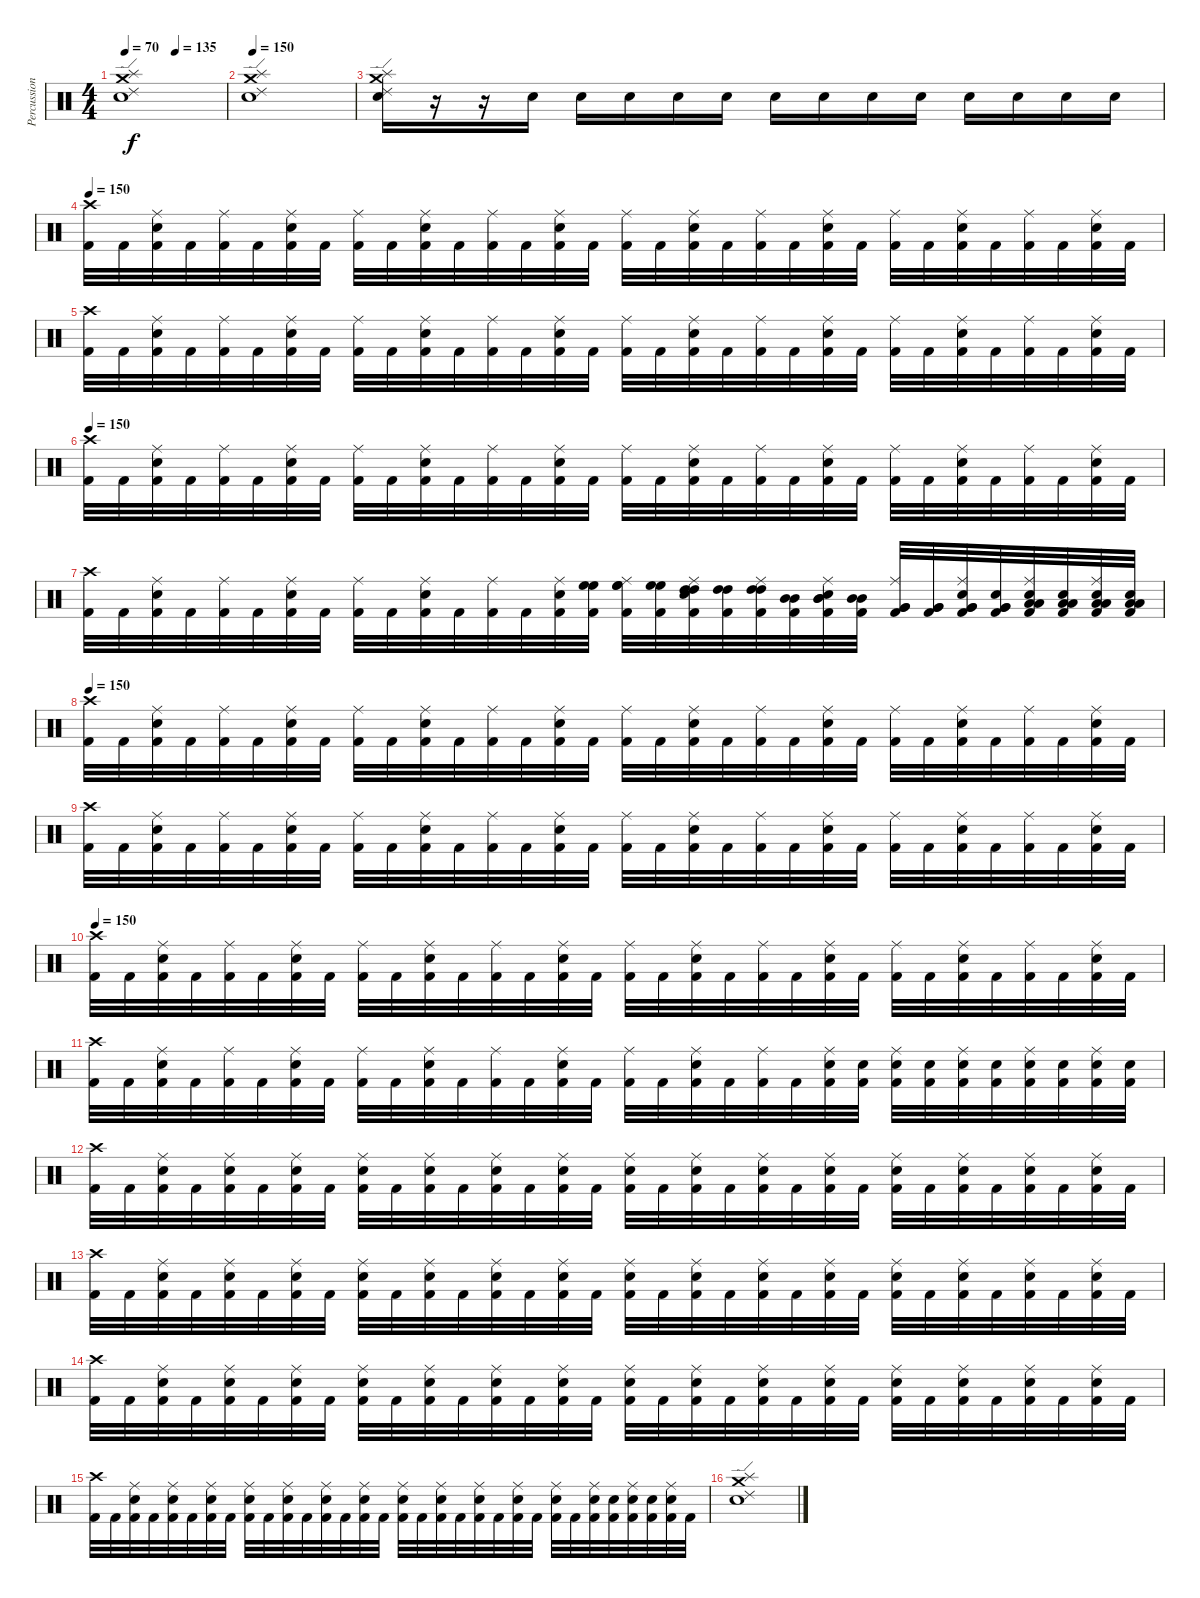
\track ("Percussions" "Percussion") {instrument percussion}
\staff {score}
\articulation defaults
\ts (4 4)
\tempo 70
\tempo (135 0.5)
\clef neutral
\ks c
("Ride (edge) 2" "Crash medium (hit)" "Splash (hit)" "Electric Snare (hit)").1{dy f} |
\tempo 150
("Ride (edge) 2" "Crash medium (hit)" "Splash (hit)" "Electric Snare (hit)").1 |
("Ride (edge) 2" "Crash medium (hit)" "Splash (hit)" "Electric Snare (hit)").16 r.16 r.16 "Electric Snare (hit)".16 "Electric Snare (hit)".16 "Electric Snare (hit)".16 "Electric Snare (hit)".16 "Electric Snare (hit)".16 "Electric Snare (hit)".16 "Electric Snare (hit)".16 "Electric Snare (hit)".16 "Electric Snare (hit)".16 "Electric Snare (hit)".16 "Electric Snare (hit)".16 "Electric Snare (hit)".16 "Electric Snare (hit)".16 |
\tempo 150
("Crash high (hit)" "Kick (hit) 2").32 "Kick (hit) 2".32 ("Ride (middle)" "Electric Snare (hit)" "Kick (hit) 2").32 "Kick (hit) 2".32 ("Ride (middle)" "Kick (hit) 2").32 "Kick (hit) 2".32 ("Ride (middle)" "Electric Snare (hit)" "Kick (hit) 2").32 "Kick (hit) 2".32 ("Ride (middle)" "Kick (hit) 2").32 "Kick (hit) 2".32 ("Ride (middle)" "Electric Snare (hit)" "Kick (hit) 2").32 "Kick (hit) 2".32 ("Ride (middle)" "Kick (hit) 2").32 "Kick (hit) 2".32 ("Ride (middle)" "Electric Snare (hit)" "Kick (hit) 2").32 "Kick (hit) 2".32 ("Ride (middle)" "Kick (hit) 2").32 "Kick (hit) 2".32 ("Ride (middle)" "Electric Snare (hit)" "Kick (hit) 2").32 "Kick (hit) 2".32 ("Ride (middle)" "Kick (hit) 2").32 "Kick (hit) 2".32 ("Ride (middle)" "Electric Snare (hit)" "Kick (hit) 2").32 "Kick (hit) 2".32 ("Ride (middle)" "Kick (hit) 2").32 "Kick (hit) 2".32 ("Ride (middle)" "Electric Snare (hit)" "Kick (hit) 2").32 "Kick (hit) 2".32 ("Ride (middle)" "Kick (hit) 2").32 "Kick (hit) 2".32 ("Ride (middle)" "Electric Snare (hit)" "Kick (hit) 2").32 "Kick (hit) 2".32 |
("Crash high (hit)" "Kick (hit) 2").32 "Kick (hit) 2".32 ("Ride (middle)" "Electric Snare (hit)" "Kick (hit) 2").32 "Kick (hit) 2".32 ("Ride (middle)" "Kick (hit) 2").32 "Kick (hit) 2".32 ("Ride (middle)" "Electric Snare (hit)" "Kick (hit) 2").32 "Kick (hit) 2".32 ("Ride (middle)" "Kick (hit) 2").32 "Kick (hit) 2".32 ("Ride (middle)" "Electric Snare (hit)" "Kick (hit) 2").32 "Kick (hit) 2".32 ("Ride (middle)" "Kick (hit) 2").32 "Kick (hit) 2".32 ("Ride (middle)" "Electric Snare (hit)" "Kick (hit) 2").32 "Kick (hit) 2".32 ("Ride (middle)" "Kick (hit) 2").32 "Kick (hit) 2".32 ("Ride (middle)" "Electric Snare (hit)" "Kick (hit) 2").32 "Kick (hit) 2".32 ("Ride (middle)" "Kick (hit) 2").32 "Kick (hit) 2".32 ("Ride (middle)" "Electric Snare (hit)" "Kick (hit) 2").32 "Kick (hit) 2".32 ("Ride (middle)" "Kick (hit) 2").32 "Kick (hit) 2".32 ("Ride (middle)" "Electric Snare (hit)" "Kick (hit) 2").32 "Kick (hit) 2".32 ("Ride (middle)" "Kick (hit) 2").32 "Kick (hit) 2".32 ("Ride (middle)" "Electric Snare (hit)" "Kick (hit) 2").32 "Kick (hit) 2".32 |
\tempo 150
("Crash high (hit)" "Kick (hit) 2").32 "Kick (hit) 2".32 ("Ride (middle)" "Electric Snare (hit)" "Kick (hit) 2").32 "Kick (hit) 2".32 ("Ride (middle)" "Kick (hit) 2").32 "Kick (hit) 2".32 ("Ride (middle)" "Electric Snare (hit)" "Kick (hit) 2").32 "Kick (hit) 2".32 ("Ride (middle)" "Kick (hit) 2").32 "Kick (hit) 2".32 ("Ride (middle)" "Electric Snare (hit)" "Kick (hit) 2").32 "Kick (hit) 2".32 ("Ride (middle)" "Kick (hit) 2").32 "Kick (hit) 2".32 ("Ride (middle)" "Electric Snare (hit)" "Kick (hit) 2").32 "Kick (hit) 2".32 ("Ride (middle)" "Kick (hit) 2").32 "Kick (hit) 2".32 ("Ride (middle)" "Electric Snare (hit)" "Kick (hit) 2").32 "Kick (hit) 2".32 ("Ride (middle)" "Kick (hit) 2").32 "Kick (hit) 2".32 ("Ride (middle)" "Electric Snare (hit)" "Kick (hit) 2").32 "Kick (hit) 2".32 ("Ride (middle)" "Kick (hit) 2").32 "Kick (hit) 2".32 ("Ride (middle)" "Electric Snare (hit)" "Kick (hit) 2").32 "Kick (hit) 2".32 ("Ride (middle)" "Kick (hit) 2").32 "Kick (hit) 2".32 ("Ride (middle)" "Electric Snare (hit)" "Kick (hit) 2").32 "Kick (hit) 2".32 |
("Crash high (hit)" "Kick (hit) 2").32 "Kick (hit) 2".32 ("Ride (middle)" "Electric Snare (hit)" "Kick (hit) 2").32 "Kick (hit) 2".32 ("Ride (middle)" "Kick (hit) 2").32 "Kick (hit) 2".32 ("Ride (middle)" "Electric Snare (hit)" "Kick (hit) 2").32 "Kick (hit) 2".32 ("Ride (middle)" "Kick (hit) 2").32 "Kick (hit) 2".32 ("Ride (middle)" "Electric Snare (hit)" "Kick (hit) 2").32 "Kick (hit) 2".32 ("Ride (middle)" "Kick (hit) 2").32 "Kick (hit) 2".32 ("Ride (middle)" "Electric Snare (hit)" "Kick (hit) 2").32 ("High Floor Tom (hit)" "High Floor Tom (hit)" "Kick (hit) 2").32 ("High Floor Tom (hit)" "Ride (middle)" "High Floor Tom (hit)" "Kick (hit) 2").32 ("High Floor Tom (hit)" "High Floor Tom (hit)" "Kick (hit) 2").32 ("High Tom (hit)" "Ride (middle)" "High Tom (hit)" "Electric Snare (hit)" "Kick (hit) 2").32 ("High Tom (hit)" "High Tom (hit)" "Kick (hit) 2").32 ("High Tom (hit)" "Ride (middle)" "High Tom (hit)" "Kick (hit) 2").32 ("Mid Tom (hit)" "Mid Tom (hit)" "Kick (hit) 2").32 ("Mid Tom (hit)" "Ride (middle)" "Mid Tom (hit)" "Electric Snare (hit)" "Kick (hit) 2").32 ("Mid Tom (hit)" "Mid Tom (hit)" "Kick (hit) 2").32 ("Very Low Tom (hit)" "Ride (middle)" "Very Low Tom (hit)" "Kick (hit) 2").32 ("Very Low Tom (hit)" "Very Low Tom (hit)" "Kick (hit) 2").32 ("Very Low Tom (hit)" "Ride (middle)" "Very Low Tom (hit)" "Electric Snare (hit)" "Kick (hit) 2").32 ("Very Low Tom (hit)" "Very Low Tom (hit)" "Electric Snare (hit)" "Kick (hit) 2").32 ("Low Floor Tom (hit)" "Ride (middle)" "Low Floor Tom (hit)" "Electric Snare (hit)" "Kick (hit) 2").32 ("Low Floor Tom (hit)" "Low Floor Tom (hit)" "Electric Snare (hit)" "Kick (hit) 2").32 ("Low Floor Tom (hit)" "Ride (middle)" "Low Floor Tom (hit)" "Electric Snare (hit)" "Kick (hit) 2").32 ("Low Floor Tom (hit)" "Low Floor Tom (hit)" "Electric Snare (hit)" "Kick (hit) 2").32 |
\tempo 150
("Crash high (hit)" "Kick (hit) 2").32 "Kick (hit) 2".32 ("Ride (middle)" "Electric Snare (hit)" "Kick (hit) 2").32 "Kick (hit) 2".32 ("Ride (middle)" "Kick (hit) 2").32 "Kick (hit) 2".32 ("Ride (middle)" "Electric Snare (hit)" "Kick (hit) 2").32 "Kick (hit) 2".32 ("Ride (middle)" "Kick (hit) 2").32 "Kick (hit) 2".32 ("Ride (middle)" "Electric Snare (hit)" "Kick (hit) 2").32 "Kick (hit) 2".32 ("Ride (middle)" "Kick (hit) 2").32 "Kick (hit) 2".32 ("Ride (middle)" "Electric Snare (hit)" "Kick (hit) 2").32 "Kick (hit) 2".32 ("Ride (middle)" "Kick (hit) 2").32 "Kick (hit) 2".32 ("Ride (middle)" "Electric Snare (hit)" "Kick (hit) 2").32 "Kick (hit) 2".32 ("Ride (middle)" "Kick (hit) 2").32 "Kick (hit) 2".32 ("Ride (middle)" "Electric Snare (hit)" "Kick (hit) 2").32 "Kick (hit) 2".32 ("Ride (middle)" "Kick (hit) 2").32 "Kick (hit) 2".32 ("Ride (middle)" "Electric Snare (hit)" "Kick (hit) 2").32 "Kick (hit) 2".32 ("Ride (middle)" "Kick (hit) 2").32 "Kick (hit) 2".32 ("Ride (middle)" "Electric Snare (hit)" "Kick (hit) 2").32 "Kick (hit) 2".32 |
("Crash high (hit)" "Kick (hit) 2").32 "Kick (hit) 2".32 ("Ride (middle)" "Electric Snare (hit)" "Kick (hit) 2").32 "Kick (hit) 2".32 ("Ride (middle)" "Kick (hit) 2").32 "Kick (hit) 2".32 ("Ride (middle)" "Electric Snare (hit)" "Kick (hit) 2").32 "Kick (hit) 2".32 ("Ride (middle)" "Kick (hit) 2").32 "Kick (hit) 2".32 ("Ride (middle)" "Electric Snare (hit)" "Kick (hit) 2").32 "Kick (hit) 2".32 ("Ride (middle)" "Kick (hit) 2").32 "Kick (hit) 2".32 ("Ride (middle)" "Electric Snare (hit)" "Kick (hit) 2").32 "Kick (hit) 2".32 ("Ride (middle)" "Kick (hit) 2").32 "Kick (hit) 2".32 ("Ride (middle)" "Electric Snare (hit)" "Kick (hit) 2").32 "Kick (hit) 2".32 ("Ride (middle)" "Kick (hit) 2").32 "Kick (hit) 2".32 ("Ride (middle)" "Electric Snare (hit)" "Kick (hit) 2").32 "Kick (hit) 2".32 ("Ride (middle)" "Kick (hit) 2").32 "Kick (hit) 2".32 ("Ride (middle)" "Electric Snare (hit)" "Kick (hit) 2").32 "Kick (hit) 2".32 ("Ride (middle)" "Kick (hit) 2").32 "Kick (hit) 2".32 ("Ride (middle)" "Electric Snare (hit)" "Kick (hit) 2").32 "Kick (hit) 2".32 |
\tempo 150
("Crash high (hit)" "Kick (hit) 2").32 "Kick (hit) 2".32 ("Ride (middle)" "Electric Snare (hit)" "Kick (hit) 2").32 "Kick (hit) 2".32 ("Ride (middle)" "Kick (hit) 2").32 "Kick (hit) 2".32 ("Ride (middle)" "Electric Snare (hit)" "Kick (hit) 2").32 "Kick (hit) 2".32 ("Ride (middle)" "Kick (hit) 2").32 "Kick (hit) 2".32 ("Ride (middle)" "Electric Snare (hit)" "Kick (hit) 2").32 "Kick (hit) 2".32 ("Ride (middle)" "Kick (hit) 2").32 "Kick (hit) 2".32 ("Ride (middle)" "Electric Snare (hit)" "Kick (hit) 2").32 "Kick (hit) 2".32 ("Ride (middle)" "Kick (hit) 2").32 "Kick (hit) 2".32 ("Ride (middle)" "Electric Snare (hit)" "Kick (hit) 2").32 "Kick (hit) 2".32 ("Ride (middle)" "Kick (hit) 2").32 "Kick (hit) 2".32 ("Ride (middle)" "Electric Snare (hit)" "Kick (hit) 2").32 "Kick (hit) 2".32 ("Ride (middle)" "Kick (hit) 2").32 "Kick (hit) 2".32 ("Ride (middle)" "Electric Snare (hit)" "Kick (hit) 2").32 "Kick (hit) 2".32 ("Ride (middle)" "Kick (hit) 2").32 "Kick (hit) 2".32 ("Ride (middle)" "Electric Snare (hit)" "Kick (hit) 2").32 "Kick (hit) 2".32 |
("Crash high (hit)" "Kick (hit) 2").32 "Kick (hit) 2".32 ("Ride (middle)" "Electric Snare (hit)" "Kick (hit) 2").32 "Kick (hit) 2".32 ("Ride (middle)" "Kick (hit) 2").32 "Kick (hit) 2".32 ("Ride (middle)" "Electric Snare (hit)" "Kick (hit) 2").32 "Kick (hit) 2".32 ("Ride (middle)" "Kick (hit) 2").32 "Kick (hit) 2".32 ("Ride (middle)" "Electric Snare (hit)" "Kick (hit) 2").32 "Kick (hit) 2".32 ("Ride (middle)" "Kick (hit) 2").32 "Kick (hit) 2".32 ("Ride (middle)" "Electric Snare (hit)" "Kick (hit) 2").32 "Kick (hit) 2".32 ("Ride (middle)" "Kick (hit) 2").32 "Kick (hit) 2".32 ("Ride (middle)" "Electric Snare (hit)" "Kick (hit) 2").32 "Kick (hit) 2".32 ("Ride (middle)" "Kick (hit) 2").32 "Kick (hit) 2".32 ("Ride (middle)" "Electric Snare (hit)" "Kick (hit) 2").32 ("Electric Snare (hit)" "Kick (hit) 2").32 ("Ride (middle)" "Electric Snare (hit)" "Kick (hit) 2").32 ("Electric Snare (hit)" "Kick (hit) 2").32 ("Ride (middle)" "Electric Snare (hit)" "Kick (hit) 2").32 ("Electric Snare (hit)" "Kick (hit) 2").32 ("Ride (middle)" "Electric Snare (hit)" "Kick (hit) 2").32 ("Electric Snare (hit)" "Kick (hit) 2").32 ("Ride (middle)" "Electric Snare (hit)" "Kick (hit) 2").32 ("Electric Snare (hit)" "Kick (hit) 2").32 |
("Crash high (hit)" "Kick (hit) 2").32 "Kick (hit) 2".32 ("Ride (middle)" "Electric Snare (hit)" "Kick (hit) 2").32 "Kick (hit) 2".32 ("Ride (middle)" "Electric Snare (hit)" "Kick (hit) 2").32 "Kick (hit) 2".32 ("Ride (middle)" "Electric Snare (hit)" "Kick (hit) 2").32 "Kick (hit) 2".32 ("Ride (middle)" "Electric Snare (hit)" "Kick (hit) 2").32 "Kick (hit) 2".32 ("Ride (middle)" "Electric Snare (hit)" "Kick (hit) 2").32 "Kick (hit) 2".32 ("Ride (middle)" "Electric Snare (hit)" "Kick (hit) 2").32 "Kick (hit) 2".32 ("Ride (middle)" "Electric Snare (hit)" "Kick (hit) 2").32 "Kick (hit) 2".32 ("Ride (middle)" "Electric Snare (hit)" "Kick (hit) 2").32 "Kick (hit) 2".32 ("Ride (middle)" "Electric Snare (hit)" "Kick (hit) 2").32 "Kick (hit) 2".32 ("Ride (middle)" "Electric Snare (hit)" "Kick (hit) 2").32 "Kick (hit) 2".32 ("Ride (middle)" "Electric Snare (hit)" "Kick (hit) 2").32 "Kick (hit) 2".32 ("Ride (middle)" "Electric Snare (hit)" "Kick (hit) 2").32 "Kick (hit) 2".32 ("Ride (middle)" "Electric Snare (hit)" "Kick (hit) 2").32 "Kick (hit) 2".32 ("Ride (middle)" "Electric Snare (hit)" "Kick (hit) 2").32 "Kick (hit) 2".32 ("Ride (middle)" "Electric Snare (hit)" "Kick (hit) 2").32 "Kick (hit) 2".32 |
("Crash high (hit)" "Kick (hit) 2").32 "Kick (hit) 2".32 ("Ride (middle)" "Electric Snare (hit)" "Kick (hit) 2").32 "Kick (hit) 2".32 ("Ride (middle)" "Electric Snare (hit)" "Kick (hit) 2").32 "Kick (hit) 2".32 ("Ride (middle)" "Electric Snare (hit)" "Kick (hit) 2").32 "Kick (hit) 2".32 ("Ride (middle)" "Electric Snare (hit)" "Kick (hit) 2").32 "Kick (hit) 2".32 ("Ride (middle)" "Electric Snare (hit)" "Kick (hit) 2").32 "Kick (hit) 2".32 ("Ride (middle)" "Electric Snare (hit)" "Kick (hit) 2").32 "Kick (hit) 2".32 ("Ride (middle)" "Electric Snare (hit)" "Kick (hit) 2").32 "Kick (hit) 2".32 ("Ride (middle)" "Electric Snare (hit)" "Kick (hit) 2").32 "Kick (hit) 2".32 ("Ride (middle)" "Electric Snare (hit)" "Kick (hit) 2").32 "Kick (hit) 2".32 ("Ride (middle)" "Electric Snare (hit)" "Kick (hit) 2").32 "Kick (hit) 2".32 ("Ride (middle)" "Electric Snare (hit)" "Kick (hit) 2").32 "Kick (hit) 2".32 ("Ride (middle)" "Electric Snare (hit)" "Kick (hit) 2").32 "Kick (hit) 2".32 ("Ride (middle)" "Electric Snare (hit)" "Kick (hit) 2").32 "Kick (hit) 2".32 ("Ride (middle)" "Electric Snare (hit)" "Kick (hit) 2").32 "Kick (hit) 2".32 ("Ride (middle)" "Electric Snare (hit)" "Kick (hit) 2").32 "Kick (hit) 2".32 |
("Crash high (hit)" "Kick (hit) 2").32 "Kick (hit) 2".32 ("Ride (middle)" "Electric Snare (hit)" "Kick (hit) 2").32 "Kick (hit) 2".32 ("Ride (middle)" "Electric Snare (hit)" "Kick (hit) 2").32 "Kick (hit) 2".32 ("Ride (middle)" "Electric Snare (hit)" "Kick (hit) 2").32 "Kick (hit) 2".32 ("Ride (middle)" "Electric Snare (hit)" "Kick (hit) 2").32 "Kick (hit) 2".32 ("Ride (middle)" "Electric Snare (hit)" "Kick (hit) 2").32 "Kick (hit) 2".32 ("Ride (middle)" "Electric Snare (hit)" "Kick (hit) 2").32 "Kick (hit) 2".32 ("Ride (middle)" "Electric Snare (hit)" "Kick (hit) 2").32 "Kick (hit) 2".32 ("Ride (middle)" "Electric Snare (hit)" "Kick (hit) 2").32 "Kick (hit) 2".32 ("Ride (middle)" "Electric Snare (hit)" "Kick (hit) 2").32 "Kick (hit) 2".32 ("Ride (middle)" "Electric Snare (hit)" "Kick (hit) 2").32 "Kick (hit) 2".32 ("Ride (middle)" "Electric Snare (hit)" "Kick (hit) 2").32 "Kick (hit) 2".32 ("Ride (middle)" "Electric Snare (hit)" "Kick (hit) 2").32 "Kick (hit) 2".32 ("Ride (middle)" "Electric Snare (hit)" "Kick (hit) 2").32 "Kick (hit) 2".32 ("Ride (middle)" "Electric Snare (hit)" "Kick (hit) 2").32 "Kick (hit) 2".32 ("Ride (middle)" "Electric Snare (hit)" "Kick (hit) 2").32 "Kick (hit) 2".32 |
("Crash high (hit)" "Kick (hit) 2").32 "Kick (hit) 2".32 ("Ride (middle)" "Electric Snare (hit)" "Kick (hit) 2").32 "Kick (hit) 2".32 ("Ride (middle)" "Electric Snare (hit)" "Kick (hit) 2").32 "Kick (hit) 2".32 ("Ride (middle)" "Electric Snare (hit)" "Kick (hit) 2").32 "Kick (hit) 2".32 ("Ride (middle)" "Electric Snare (hit)" "Kick (hit) 2").32 "Kick (hit) 2".32 ("Ride (middle)" "Electric Snare (hit)" "Kick (hit) 2").32 "Kick (hit) 2".32 ("Ride (middle)" "Electric Snare (hit)" "Kick (hit) 2").32 "Kick (hit) 2".32 ("Ride (middle)" "Electric Snare (hit)" "Kick (hit) 2").32 "Kick (hit) 2".32 ("Ride (middle)" "Electric Snare (hit)" "Kick (hit) 2").32 "Kick (hit) 2".32 ("Ride (middle)" "Electric Snare (hit)" "Kick (hit) 2").32 "Kick (hit) 2".32 ("Ride (middle)" "Electric Snare (hit)" "Kick (hit) 2").32 "Kick (hit) 2".32 ("Ride (middle)" "Electric Snare (hit)" "Kick (hit) 2").32 "Kick (hit) 2".32 ("Ride (middle)" "Electric Snare (hit)" "Kick (hit) 2").32 "Kick (hit) 2".32 ("Ride (middle)" "Electric Snare (hit)" "Kick (hit) 2").32 ("Electric Snare (hit)" "Kick (hit) 2").32 ("Ride (middle)" "Electric Snare (hit)" "Kick (hit) 2").32 ("Electric Snare (hit)" "Kick (hit) 2").32 ("Ride (middle)" "Electric Snare (hit)" "Kick (hit) 2").32 "Kick (hit) 2".32 |
("Ride (edge) 2" "Crash medium (hit)" "Splash (hit)" "Electric Snare (hit)").1
